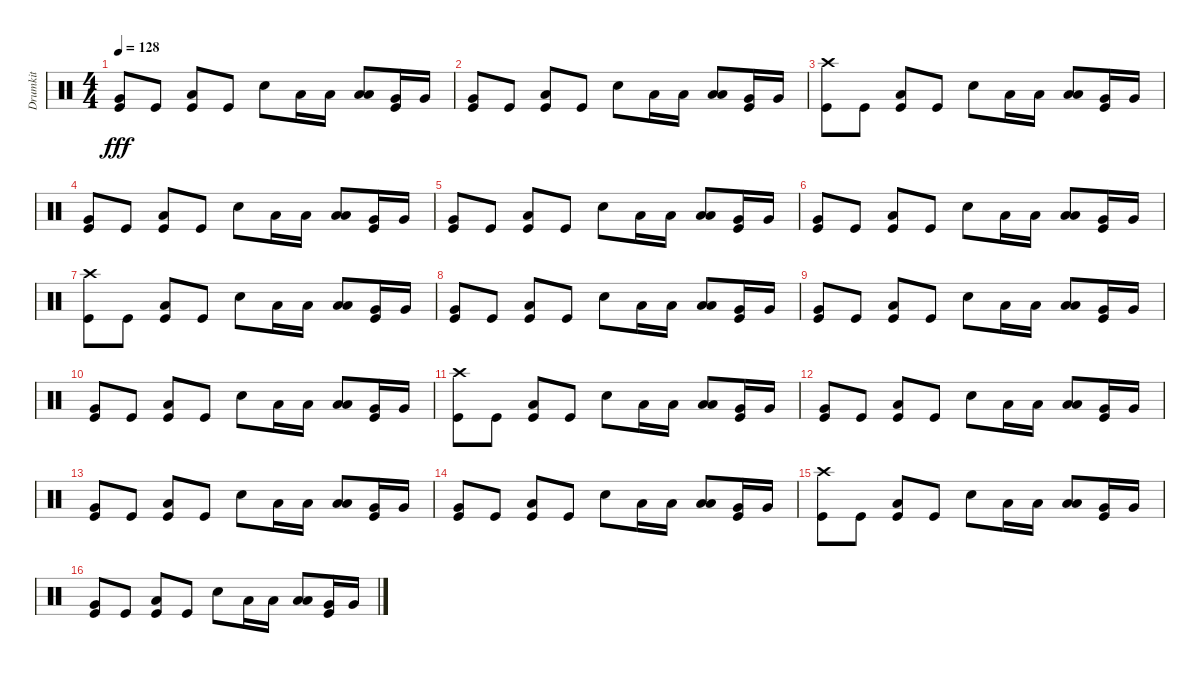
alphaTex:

\track ("Drumkit" "Drumkit") {instrument percussion}
\staff {score}
\articulation defaults
\ts (4 4)
\tempo 128
\clef neutral
\ks c
("Kick (hit)" "Very Low Tom (hit)").8{dy fff} "Kick (hit)".8 ("Low Floor Tom (hit)" "Kick (hit)").8 "Kick (hit)".8 "Snare (hit) 2".8 "Low Tom (hit)".16 "Low Tom (hit)".16 ("Low Tom (hit)" "Low Floor Tom (hit)").8 ("Very Low Tom (hit)" "Kick (hit)").16 "Very Low Tom (hit)".16 |
("Kick (hit)" "Very Low Tom (hit)").8 "Kick (hit)".8 ("Low Floor Tom (hit)" "Kick (hit)").8 "Kick (hit)".8 "Snare (hit) 2".8 "Low Tom (hit)".16 "Low Tom (hit)".16 ("Low Tom (hit)" "Low Floor Tom (hit)").8 ("Very Low Tom (hit)" "Kick (hit)").16 "Very Low Tom (hit)".16 |
("Kick (hit)" "Crash high (hit)").8 "Kick (hit)".8 ("Low Floor Tom (hit)" "Kick (hit)").8 "Kick (hit)".8 "Snare (hit) 2".8 "Low Tom (hit)".16 "Low Tom (hit)".16 ("Low Tom (hit)" "Low Floor Tom (hit)").8 ("Very Low Tom (hit)" "Kick (hit)").16 "Very Low Tom (hit)".16 |
("Kick (hit)" "Very Low Tom (hit)").8 "Kick (hit)".8 ("Low Floor Tom (hit)" "Kick (hit)").8 "Kick (hit)".8 "Snare (hit) 2".8 "Low Tom (hit)".16 "Low Tom (hit)".16 ("Low Tom (hit)" "Low Floor Tom (hit)").8 ("Very Low Tom (hit)" "Kick (hit)").16 "Very Low Tom (hit)".16 |
("Kick (hit)" "Very Low Tom (hit)").8 "Kick (hit)".8 ("Low Floor Tom (hit)" "Kick (hit)").8 "Kick (hit)".8 "Snare (hit) 2".8 "Low Tom (hit)".16 "Low Tom (hit)".16 ("Low Tom (hit)" "Low Floor Tom (hit)").8 ("Very Low Tom (hit)" "Kick (hit)").16 "Very Low Tom (hit)".16 |
("Kick (hit)" "Very Low Tom (hit)").8 "Kick (hit)".8 ("Low Floor Tom (hit)" "Kick (hit)").8 "Kick (hit)".8 "Snare (hit) 2".8 "Low Tom (hit)".16 "Low Tom (hit)".16 ("Low Tom (hit)" "Low Floor Tom (hit)").8 ("Very Low Tom (hit)" "Kick (hit)").16 "Very Low Tom (hit)".16 |
("Kick (hit)" "Crash high (hit)").8 "Kick (hit)".8 ("Low Floor Tom (hit)" "Kick (hit)").8 "Kick (hit)".8 "Snare (hit) 2".8 "Low Tom (hit)".16 "Low Tom (hit)".16 ("Low Tom (hit)" "Low Floor Tom (hit)").8 ("Very Low Tom (hit)" "Kick (hit)").16 "Very Low Tom (hit)".16 |
("Kick (hit)" "Very Low Tom (hit)").8 "Kick (hit)".8 ("Low Floor Tom (hit)" "Kick (hit)").8 "Kick (hit)".8 "Snare (hit) 2".8 "Low Tom (hit)".16 "Low Tom (hit)".16 ("Low Tom (hit)" "Low Floor Tom (hit)").8 ("Very Low Tom (hit)" "Kick (hit)").16 "Very Low Tom (hit)".16 |
("Kick (hit)" "Very Low Tom (hit)").8 "Kick (hit)".8 ("Low Floor Tom (hit)" "Kick (hit)").8 "Kick (hit)".8 "Snare (hit) 2".8 "Low Tom (hit)".16 "Low Tom (hit)".16 ("Low Tom (hit)" "Low Floor Tom (hit)").8 ("Very Low Tom (hit)" "Kick (hit)").16 "Very Low Tom (hit)".16 |
("Kick (hit)" "Very Low Tom (hit)").8 "Kick (hit)".8 ("Low Floor Tom (hit)" "Kick (hit)").8 "Kick (hit)".8 "Snare (hit) 2".8 "Low Tom (hit)".16 "Low Tom (hit)".16 ("Low Tom (hit)" "Low Floor Tom (hit)").8 ("Very Low Tom (hit)" "Kick (hit)").16 "Very Low Tom (hit)".16 |
("Kick (hit)" "Crash high (hit)").8 "Kick (hit)".8 ("Low Floor Tom (hit)" "Kick (hit)").8 "Kick (hit)".8 "Snare (hit) 2".8 "Low Tom (hit)".16 "Low Tom (hit)".16 ("Low Tom (hit)" "Low Floor Tom (hit)").8 ("Very Low Tom (hit)" "Kick (hit)").16 "Very Low Tom (hit)".16 |
("Kick (hit)" "Very Low Tom (hit)").8 "Kick (hit)".8 ("Low Floor Tom (hit)" "Kick (hit)").8 "Kick (hit)".8 "Snare (hit) 2".8 "Low Tom (hit)".16 "Low Tom (hit)".16 ("Low Tom (hit)" "Low Floor Tom (hit)").8 ("Very Low Tom (hit)" "Kick (hit)").16 "Very Low Tom (hit)".16 |
("Kick (hit)" "Very Low Tom (hit)").8 "Kick (hit)".8 ("Low Floor Tom (hit)" "Kick (hit)").8 "Kick (hit)".8 "Snare (hit) 2".8 "Low Tom (hit)".16 "Low Tom (hit)".16 ("Low Tom (hit)" "Low Floor Tom (hit)").8 ("Very Low Tom (hit)" "Kick (hit)").16 "Very Low Tom (hit)".16 |
("Kick (hit)" "Very Low Tom (hit)").8 "Kick (hit)".8 ("Low Floor Tom (hit)" "Kick (hit)").8 "Kick (hit)".8 "Snare (hit) 2".8 "Low Tom (hit)".16 "Low Tom (hit)".16 ("Low Tom (hit)" "Low Floor Tom (hit)").8 ("Very Low Tom (hit)" "Kick (hit)").16 "Very Low Tom (hit)".16 |
("Kick (hit)" "Crash high (hit)").8 "Kick (hit)".8 ("Low Floor Tom (hit)" "Kick (hit)").8 "Kick (hit)".8 "Snare (hit) 2".8 "Low Tom (hit)".16 "Low Tom (hit)".16 ("Low Tom (hit)" "Low Floor Tom (hit)").8 ("Very Low Tom (hit)" "Kick (hit)").16 "Very Low Tom (hit)".16 |
("Kick (hit)" "Very Low Tom (hit)").8 "Kick (hit)".8 ("Low Floor Tom (hit)" "Kick (hit)").8 "Kick (hit)".8 "Snare (hit) 2".8 "Low Tom (hit)".16 "Low Tom (hit)".16 ("Low Tom (hit)" "Low Floor Tom (hit)").8 ("Very Low Tom (hit)" "Kick (hit)").16 "Very Low Tom (hit)".16
